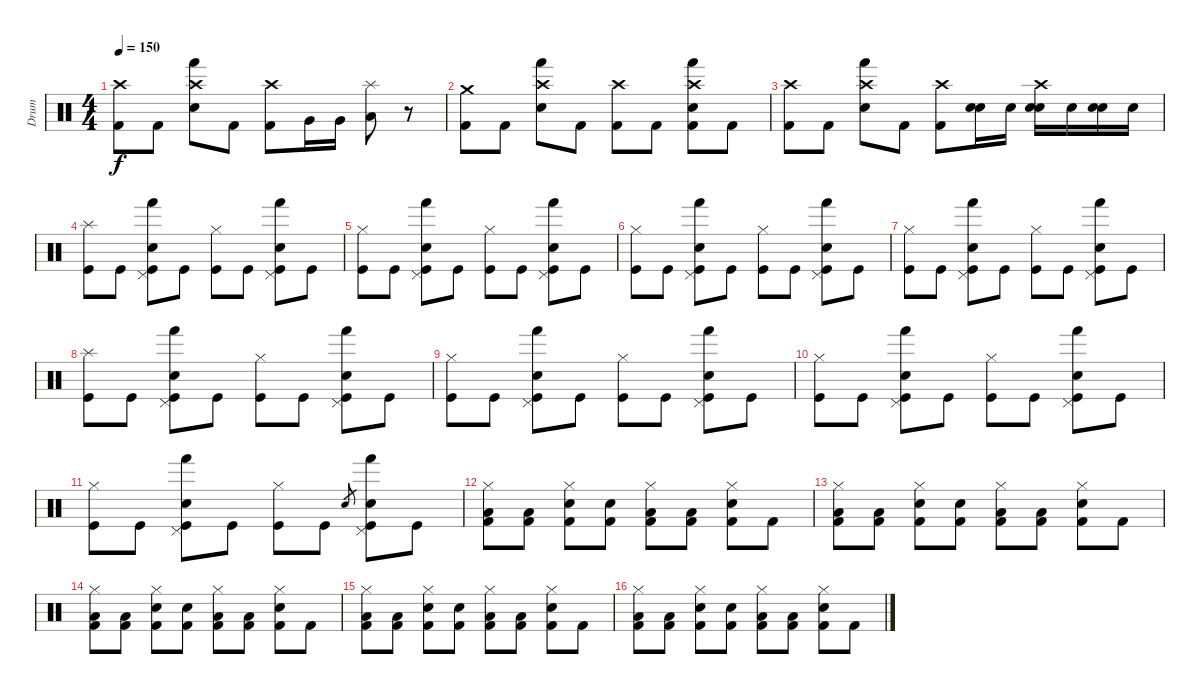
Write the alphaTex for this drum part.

\track ("Drum" "Drum") {instrument percussion}
\staff {score}
\articulation defaults
\ts (4 4)
\tempo 150
\clef neutral
\ks c
("Crash high (hit)" "Kick (hit) 2").8{dy f} "Kick (hit) 2".8 ("Crash high (hit)" "Hand (hit)" "Electric Snare (hit)").8 "Kick (hit) 2".8 ("Crash high (hit)" "Kick (hit) 2").8 "Very Low Tom (hit)".16 "Very Low Tom (hit)".16 ("Splash (hit)" "Low Floor Tom (hit)").8 r.8 |
("Crash medium (hit)" "Kick (hit) 2").8 "Kick (hit) 2".8 ("Crash high (hit)" "Hand (hit)" "Electric Snare (hit)").8 "Kick (hit) 2".8 ("Crash high (hit)" "Kick (hit) 2").8 "Kick (hit) 2".8 ("Crash high (hit)" "Hand (hit)" "Electric Snare (hit)" "Kick (hit) 2").8 "Kick (hit) 2".8 |
("Crash high (hit)" "Kick (hit) 2").8 "Kick (hit) 2".8 ("Crash high (hit)" "Hand (hit)" "Electric Snare (hit)").8 "Kick (hit) 2".8 ("Crash high (hit)" "Kick (hit) 2").8 ("Electric Snare (hit)" "Snare (hit) 2").16 "Electric Snare (hit)".16 ("Crash high (hit)" "Electric Snare (hit)" "Snare (hit) 2").16 "Electric Snare (hit)".16 ("Electric Snare (hit)" "Snare (hit) 2").16 "Electric Snare (hit)".16 |
("Splash (hit)" "Kick (hit)").8 "Kick (hit)".8 ("Pedal Hi-Hat (hit)" "Hand (hit)" "Electric Snare (hit)" "Kick (hit)").8 "Kick (hit)".8 ("Hi-Hat (closed)" "Kick (hit)").8 "Kick (hit)".8 ("Pedal Hi-Hat (hit)" "Hand (hit)" "Electric Snare (hit)" "Kick (hit)").8 "Kick (hit)".8 |
("Hi-Hat (closed)" "Kick (hit)").8 "Kick (hit)".8 ("Pedal Hi-Hat (hit)" "Hand (hit)" "Electric Snare (hit)" "Kick (hit)").8 "Kick (hit)".8 ("Hi-Hat (closed)" "Kick (hit)").8 "Kick (hit)".8 ("Pedal Hi-Hat (hit)" "Hand (hit)" "Electric Snare (hit)" "Kick (hit)").8 "Kick (hit)".8 |
("Hi-Hat (closed)" "Kick (hit)").8 "Kick (hit)".8 ("Pedal Hi-Hat (hit)" "Hand (hit)" "Electric Snare (hit)" "Kick (hit)").8 "Kick (hit)".8 ("Hi-Hat (closed)" "Kick (hit)").8 "Kick (hit)".8 ("Pedal Hi-Hat (hit)" "Hand (hit)" "Electric Snare (hit)" "Kick (hit)").8 "Kick (hit)".8 |
("Hi-Hat (closed)" "Kick (hit)").8 "Kick (hit)".8 ("Pedal Hi-Hat (hit)" "Hand (hit)" "Electric Snare (hit)" "Kick (hit)").8 "Kick (hit)".8 ("Hi-Hat (closed)" "Kick (hit)").8 "Kick (hit)".8 ("Pedal Hi-Hat (hit)" "Hand (hit)" "Electric Snare (hit)" "Kick (hit)").8 "Kick (hit)".8 |
("Splash (hit)" "Kick (hit)").8 "Kick (hit)".8 ("Pedal Hi-Hat (hit)" "Hand (hit)" "Electric Snare (hit)" "Kick (hit)").8 "Kick (hit)".8 ("Hi-Hat (closed)" "Kick (hit)").8 "Kick (hit)".8 ("Pedal Hi-Hat (hit)" "Hand (hit)" "Electric Snare (hit)" "Kick (hit)").8 "Kick (hit)".8 |
("Hi-Hat (closed)" "Kick (hit)").8 "Kick (hit)".8 ("Pedal Hi-Hat (hit)" "Hand (hit)" "Electric Snare (hit)" "Kick (hit)").8 "Kick (hit)".8 ("Hi-Hat (closed)" "Kick (hit)").8 "Kick (hit)".8 ("Pedal Hi-Hat (hit)" "Hand (hit)" "Electric Snare (hit)" "Kick (hit)").8 "Kick (hit)".8 |
("Hi-Hat (closed)" "Kick (hit)").8 "Kick (hit)".8 ("Pedal Hi-Hat (hit)" "Hand (hit)" "Electric Snare (hit)" "Kick (hit)").8 "Kick (hit)".8 ("Hi-Hat (closed)" "Kick (hit)").8 "Kick (hit)".8 ("Pedal Hi-Hat (hit)" "Hand (hit)" "Electric Snare (hit)" "Kick (hit)").8 "Kick (hit)".8 |
("Hi-Hat (closed)" "Kick (hit)").8 "Kick (hit)".8 ("Pedal Hi-Hat (hit)" "Hand (hit)" "Electric Snare (hit)" "Kick (hit)").8 "Kick (hit)".8 ("Hi-Hat (closed)" "Kick (hit)").8 "Kick (hit)".8 "Electric Snare (hit)".8{gr} ("Pedal Hi-Hat (hit)" "Hand (hit)" "Electric Snare (hit)" "Kick (hit)").8 "Kick (hit)".8 |
("Hi-Hat (closed)" "Low Floor Tom (hit)" "Kick (hit) 2").8 ("Low Floor Tom (hit)" "Kick (hit) 2").8 ("Hi-Hat (closed)" "Snare (hit) 2" "Kick (hit) 2").8 ("Snare (hit) 2" "Kick (hit) 2").8 ("Hi-Hat (closed)" "Low Floor Tom (hit)" "Kick (hit) 2").8 ("Low Floor Tom (hit)" "Kick (hit) 2").8 ("Hi-Hat (closed)" "Snare (hit) 2" "Kick (hit) 2").8 "Kick (hit) 2".8 |
("Hi-Hat (closed)" "Low Floor Tom (hit)" "Kick (hit) 2").8 ("Low Floor Tom (hit)" "Kick (hit) 2").8 ("Hi-Hat (closed)" "Snare (hit) 2" "Kick (hit) 2").8 ("Snare (hit) 2" "Kick (hit) 2").8 ("Hi-Hat (closed)" "Low Floor Tom (hit)" "Kick (hit) 2").8 ("Low Floor Tom (hit)" "Kick (hit) 2").8 ("Hi-Hat (closed)" "Snare (hit) 2" "Kick (hit) 2").8 "Kick (hit) 2".8 |
("Hi-Hat (closed)" "Low Floor Tom (hit)" "Kick (hit) 2").8 ("Low Floor Tom (hit)" "Kick (hit) 2").8 ("Hi-Hat (closed)" "Snare (hit) 2" "Kick (hit) 2").8 ("Snare (hit) 2" "Kick (hit) 2").8 ("Hi-Hat (closed)" "Low Floor Tom (hit)" "Kick (hit) 2").8 ("Low Floor Tom (hit)" "Kick (hit) 2").8 ("Hi-Hat (closed)" "Snare (hit) 2" "Kick (hit) 2").8 "Kick (hit) 2".8 |
("Hi-Hat (closed)" "Low Floor Tom (hit)" "Kick (hit) 2").8 ("Low Floor Tom (hit)" "Kick (hit) 2").8 ("Hi-Hat (closed)" "Snare (hit) 2" "Kick (hit) 2").8 ("Snare (hit) 2" "Kick (hit) 2").8 ("Hi-Hat (closed)" "Low Floor Tom (hit)" "Kick (hit) 2").8 ("Low Floor Tom (hit)" "Kick (hit) 2").8 ("Hi-Hat (closed)" "Snare (hit) 2" "Kick (hit) 2").8 "Kick (hit) 2".8 |
("Hi-Hat (closed)" "Low Floor Tom (hit)" "Kick (hit) 2").8 ("Low Floor Tom (hit)" "Kick (hit) 2").8 ("Hi-Hat (closed)" "Snare (hit) 2" "Kick (hit) 2").8 ("Snare (hit) 2" "Kick (hit) 2").8 ("Hi-Hat (closed)" "Low Floor Tom (hit)" "Kick (hit) 2").8 ("Low Floor Tom (hit)" "Kick (hit) 2").8 ("Hi-Hat (closed)" "Snare (hit) 2" "Kick (hit) 2").8 "Kick (hit) 2".8
